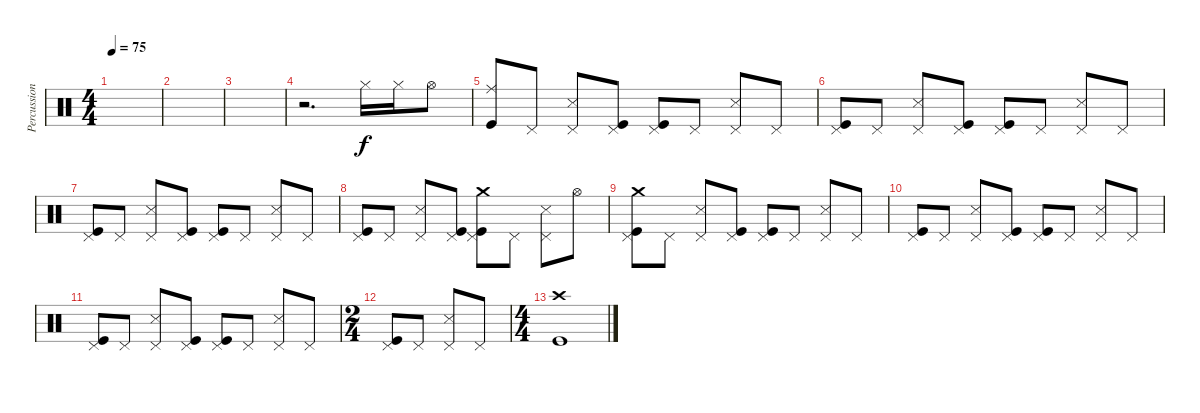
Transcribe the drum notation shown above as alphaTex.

\track ("Percussion" "Percussion") {instrument percussion}
\staff {score}
\articulation defaults
\ts (4 4)
\tempo 75
\clef neutral
\ks c
|
|
|
r.2{d} "Hi-Hat (closed)".16 "Hi-Hat (closed)".16 "Hi-Hat (open)".8 |
("Kick (hit)" "Ride (middle)").8 "Pedal Hi-Hat (hit)".8 ("Snare (side stick) 3" "Pedal Hi-Hat (hit)").8 ("Kick (hit)" "Pedal Hi-Hat (hit)").8 ("Kick (hit)" "Pedal Hi-Hat (hit)").8 "Pedal Hi-Hat (hit)".8 ("Snare (side stick) 3" "Pedal Hi-Hat (hit)").8 "Pedal Hi-Hat (hit)".8 |
("Kick (hit)" "Pedal Hi-Hat (hit)").8 "Pedal Hi-Hat (hit)".8 ("Snare (side stick) 3" "Pedal Hi-Hat (hit)").8 ("Kick (hit)" "Pedal Hi-Hat (hit)").8 ("Kick (hit)" "Pedal Hi-Hat (hit)").8 "Pedal Hi-Hat (hit)".8 ("Snare (side stick) 3" "Pedal Hi-Hat (hit)").8 "Pedal Hi-Hat (hit)".8 |
("Kick (hit)" "Pedal Hi-Hat (hit)").8 "Pedal Hi-Hat (hit)".8 ("Snare (side stick) 3" "Pedal Hi-Hat (hit)").8 ("Kick (hit)" "Pedal Hi-Hat (hit)").8 ("Kick (hit)" "Pedal Hi-Hat (hit)").8 "Pedal Hi-Hat (hit)".8 ("Snare (side stick) 3" "Pedal Hi-Hat (hit)").8 "Pedal Hi-Hat (hit)".8 |
("Kick (hit)" "Pedal Hi-Hat (hit)").8 "Pedal Hi-Hat (hit)".8 ("Snare (side stick) 3" "Pedal Hi-Hat (hit)").8 ("Kick (hit)" "Pedal Hi-Hat (hit)").8 ("Kick (hit)" "Pedal Hi-Hat (hit)" "Crash medium (hit)").8 "Pedal Hi-Hat (hit)".8 ("Snare (side stick) 3" "Pedal Hi-Hat (hit)").8 "Hi-Hat (open)".8 |
("Kick (hit)" "Pedal Hi-Hat (hit)" "Crash medium (hit)").8 "Pedal Hi-Hat (hit)".8 ("Snare (side stick) 3" "Pedal Hi-Hat (hit)").8 ("Kick (hit)" "Pedal Hi-Hat (hit)").8 ("Kick (hit)" "Pedal Hi-Hat (hit)").8 "Pedal Hi-Hat (hit)".8 ("Snare (side stick) 3" "Pedal Hi-Hat (hit)").8 "Pedal Hi-Hat (hit)".8 |
("Kick (hit)" "Pedal Hi-Hat (hit)").8 "Pedal Hi-Hat (hit)".8 ("Snare (side stick) 3" "Pedal Hi-Hat (hit)").8 ("Kick (hit)" "Pedal Hi-Hat (hit)").8 ("Kick (hit)" "Pedal Hi-Hat (hit)").8 "Pedal Hi-Hat (hit)".8 ("Snare (side stick) 3" "Pedal Hi-Hat (hit)").8 "Pedal Hi-Hat (hit)".8 |
("Kick (hit)" "Pedal Hi-Hat (hit)").8 "Pedal Hi-Hat (hit)".8 ("Snare (side stick) 3" "Pedal Hi-Hat (hit)").8 ("Kick (hit)" "Pedal Hi-Hat (hit)").8 ("Kick (hit)" "Pedal Hi-Hat (hit)").8 "Pedal Hi-Hat (hit)".8 ("Snare (side stick) 3" "Pedal Hi-Hat (hit)").8 "Pedal Hi-Hat (hit)".8 |
\ts (2 4)
("Kick (hit)" "Pedal Hi-Hat (hit)").8 "Pedal Hi-Hat (hit)".8 ("Snare (side stick) 3" "Pedal Hi-Hat (hit)").8 "Pedal Hi-Hat (hit)".8 |
\ts (4 4)
("Kick (hit)" "Crash high (hit)").1
